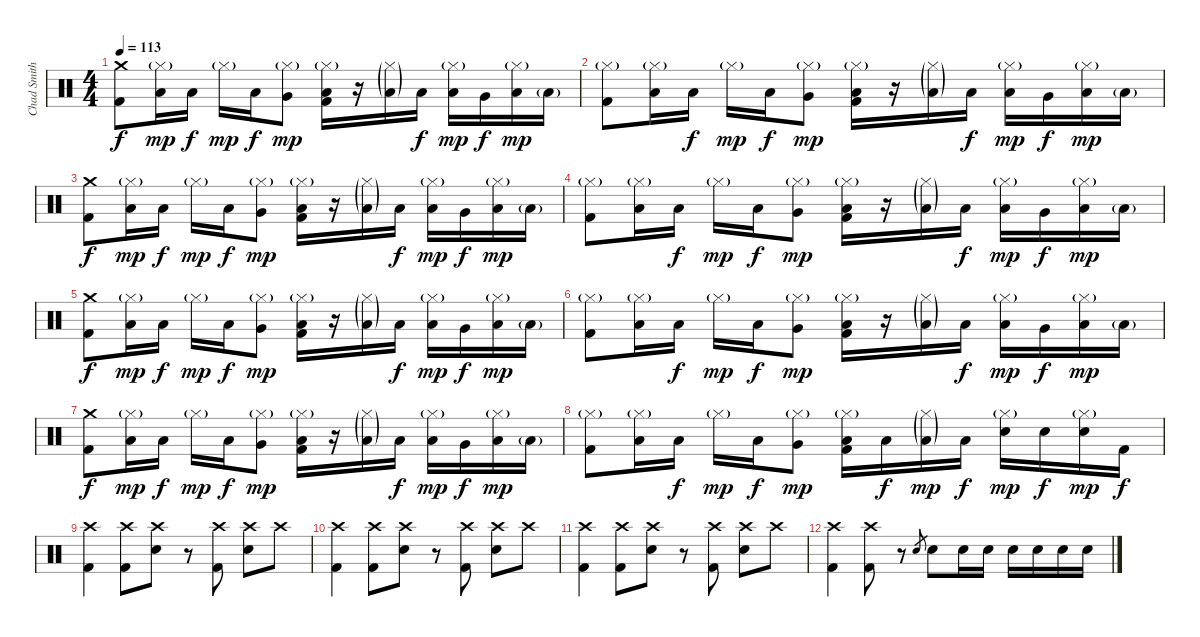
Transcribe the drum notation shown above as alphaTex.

\track ("Chad Smith" "Chad Smith") {instrument percussion}
\staff {score}
\articulation defaults
\ts (4 4)
\tempo 113
\clef neutral
\ks c
("Crash medium (hit)" "Kick (hit) 2").8{dy f} ("Hi-Hat (closed)"{g} "Low Tom (hit)").16{dy mp} "Low Tom (hit)".16{dy f} "Hi-Hat (closed)"{g}.16{dy mp} "Low Tom (hit)".16{dy f} ("Hi-Hat (closed)"{g} "Very Low Tom (hit)").8{dy mp} ("Hi-Hat (closed)"{g} "Low Tom (hit)" "Kick (hit) 2").16 r.16 ("Hi-Hat (closed)"{g} "Low Tom (hit)"{g}).16 "Low Tom (hit)".16{dy f} ("Hi-Hat (closed)"{g} "Low Tom (hit)").16{dy mp} "Very Low Tom (hit)".16{dy f} ("Hi-Hat (closed)"{g} "Low Floor Tom (hit)").16{dy mp} "Low Floor Tom (hit)"{g}.16 |
("Hi-Hat (closed)"{g} "Kick (hit) 2").8 ("Hi-Hat (closed)"{g} "Low Tom (hit)").16 "Low Tom (hit)".16{dy f} "Hi-Hat (closed)"{g}.16{dy mp} "Low Tom (hit)".16{dy f} ("Hi-Hat (closed)"{g} "Very Low Tom (hit)").8{dy mp} ("Hi-Hat (closed)"{g} "Low Tom (hit)" "Kick (hit) 2").16 r.16 ("Hi-Hat (closed)"{g} "Low Tom (hit)"{g}).16 "Low Tom (hit)".16{dy f} ("Hi-Hat (closed)"{g} "Low Tom (hit)").16{dy mp} "Very Low Tom (hit)".16{dy f} ("Hi-Hat (closed)"{g} "Low Floor Tom (hit)").16{dy mp} "Low Floor Tom (hit)"{g}.16 |
("Crash medium (hit)" "Kick (hit) 2").8{dy f} ("Hi-Hat (closed)"{g} "Low Tom (hit)").16{dy mp} "Low Tom (hit)".16{dy f} "Hi-Hat (closed)"{g}.16{dy mp} "Low Tom (hit)".16{dy f} ("Hi-Hat (closed)"{g} "Very Low Tom (hit)").8{dy mp} ("Hi-Hat (closed)"{g} "Low Tom (hit)" "Kick (hit) 2").16 r.16 ("Hi-Hat (closed)"{g} "Low Tom (hit)"{g}).16 "Low Tom (hit)".16{dy f} ("Hi-Hat (closed)"{g} "Low Tom (hit)").16{dy mp} "Very Low Tom (hit)".16{dy f} ("Hi-Hat (closed)"{g} "Low Floor Tom (hit)").16{dy mp} "Low Floor Tom (hit)"{g}.16 |
("Hi-Hat (closed)"{g} "Kick (hit) 2").8 ("Hi-Hat (closed)"{g} "Low Tom (hit)").16 "Low Tom (hit)".16{dy f} "Hi-Hat (closed)"{g}.16{dy mp} "Low Tom (hit)".16{dy f} ("Hi-Hat (closed)"{g} "Very Low Tom (hit)").8{dy mp} ("Hi-Hat (closed)"{g} "Low Tom (hit)" "Kick (hit) 2").16 r.16 ("Hi-Hat (closed)"{g} "Low Tom (hit)"{g}).16 "Low Tom (hit)".16{dy f} ("Hi-Hat (closed)"{g} "Low Tom (hit)").16{dy mp} "Very Low Tom (hit)".16{dy f} ("Hi-Hat (closed)"{g} "Low Floor Tom (hit)").16{dy mp} "Low Floor Tom (hit)"{g}.16 |
("Crash medium (hit)" "Kick (hit) 2").8{dy f} ("Hi-Hat (closed)"{g} "Low Tom (hit)").16{dy mp} "Low Tom (hit)".16{dy f} "Hi-Hat (closed)"{g}.16{dy mp} "Low Tom (hit)".16{dy f} ("Hi-Hat (closed)"{g} "Very Low Tom (hit)").8{dy mp} ("Hi-Hat (closed)"{g} "Low Tom (hit)" "Kick (hit) 2").16 r.16 ("Hi-Hat (closed)"{g} "Low Tom (hit)"{g}).16 "Low Tom (hit)".16{dy f} ("Hi-Hat (closed)"{g} "Low Tom (hit)").16{dy mp} "Very Low Tom (hit)".16{dy f} ("Hi-Hat (closed)"{g} "Low Floor Tom (hit)").16{dy mp} "Low Floor Tom (hit)"{g}.16 |
("Hi-Hat (closed)"{g} "Kick (hit) 2").8 ("Hi-Hat (closed)"{g} "Low Tom (hit)").16 "Low Tom (hit)".16{dy f} "Hi-Hat (closed)"{g}.16{dy mp} "Low Tom (hit)".16{dy f} ("Hi-Hat (closed)"{g} "Very Low Tom (hit)").8{dy mp} ("Hi-Hat (closed)"{g} "Low Tom (hit)" "Kick (hit) 2").16 r.16 ("Hi-Hat (closed)"{g} "Low Tom (hit)"{g}).16 "Low Tom (hit)".16{dy f} ("Hi-Hat (closed)"{g} "Low Tom (hit)").16{dy mp} "Very Low Tom (hit)".16{dy f} ("Hi-Hat (closed)"{g} "Low Floor Tom (hit)").16{dy mp} "Low Floor Tom (hit)"{g}.16 |
("Crash medium (hit)" "Kick (hit) 2").8{dy f} ("Hi-Hat (closed)"{g} "Low Tom (hit)").16{dy mp} "Low Tom (hit)".16{dy f} "Hi-Hat (closed)"{g}.16{dy mp} "Low Tom (hit)".16{dy f} ("Hi-Hat (closed)"{g} "Very Low Tom (hit)").8{dy mp} ("Hi-Hat (closed)"{g} "Low Tom (hit)" "Kick (hit) 2").16 r.16 ("Hi-Hat (closed)"{g} "Low Tom (hit)"{g}).16 "Low Tom (hit)".16{dy f} ("Hi-Hat (closed)"{g} "Low Tom (hit)").16{dy mp} "Very Low Tom (hit)".16{dy f} ("Hi-Hat (closed)"{g} "Low Floor Tom (hit)").16{dy mp} "Low Floor Tom (hit)"{g}.16 |
("Hi-Hat (closed)"{g} "Kick (hit) 2").8 ("Hi-Hat (closed)"{g} "Low Tom (hit)").16 "Low Tom (hit)".16{dy f} "Hi-Hat (closed)"{g}.16{dy mp} "Low Tom (hit)".16{dy f} ("Hi-Hat (closed)"{g} "Very Low Tom (hit)").8{dy mp} ("Hi-Hat (closed)"{g} "Low Tom (hit)" "Kick (hit) 2").16 "Low Tom (hit)".16{dy f} ("Hi-Hat (closed)"{g} "Low Tom (hit)"{g}).16{dy mp} "Low Tom (hit)".16{dy f} ("Hi-Hat (closed)"{g} "Snare (hit) 2").16{dy mp} "Snare (hit) 2".16{dy f} ("Hi-Hat (closed)"{g} "Snare (hit) 2").16{dy mp} "Kick (hit) 2".16{dy f} |
("Crash high (hit)" "Kick (hit) 2").4 ("Crash high (hit)" "Kick (hit) 2").8 ("Crash high (hit)" "Snare (hit) 2").8 r.8 ("Crash high (hit)" "Kick (hit) 2").8 ("Crash high (hit)" "Snare (hit) 2").8 "Crash high (hit)".8 |
("Crash high (hit)" "Kick (hit) 2").4 ("Crash high (hit)" "Kick (hit) 2").8 ("Crash high (hit)" "Snare (hit) 2").8 r.8 ("Crash high (hit)" "Kick (hit) 2").8 ("Crash high (hit)" "Snare (hit) 2").8 "Crash high (hit)".8 |
("Crash high (hit)" "Kick (hit) 2").4 ("Crash high (hit)" "Kick (hit) 2").8 ("Crash high (hit)" "Snare (hit) 2").8 r.8 ("Crash high (hit)" "Kick (hit) 2").8 ("Crash high (hit)" "Snare (hit) 2").8 "Crash high (hit)".8 |
("Crash high (hit)" "Kick (hit) 2").4 ("Crash high (hit)" "Kick (hit) 2").8 r.8 "Snare (hit) 2".8{gr} "Snare (hit) 2".8 "Snare (hit) 2".16 "Snare (hit) 2".16 "Snare (hit) 2".16 "Snare (hit) 2".16 "Snare (hit) 2".16 "Snare (hit) 2".16
